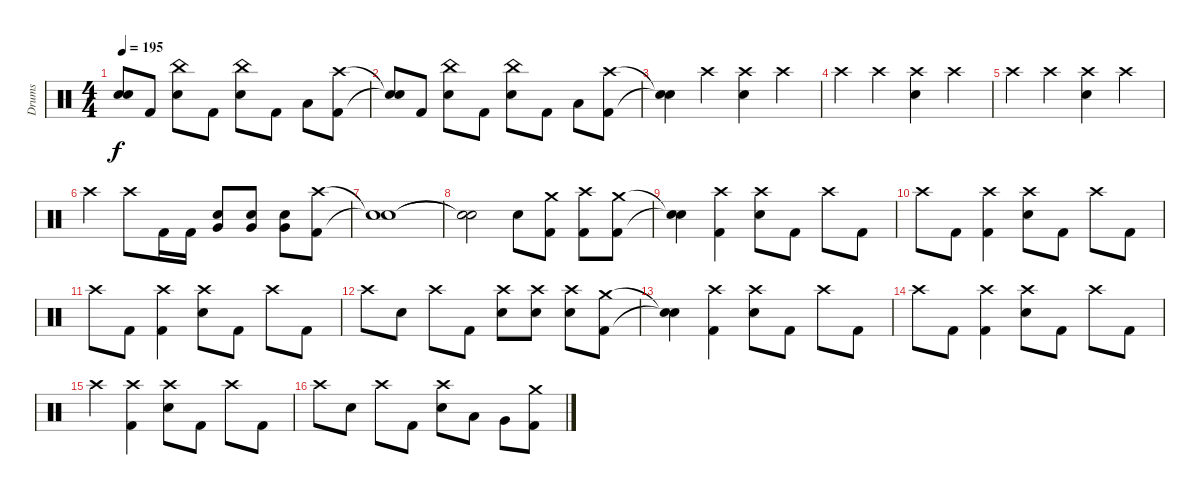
\track ("Drums" "Drums") {instrument percussion}
\staff {score}
\articulation defaults
\ts (4 4)
\tempo 195
\clef neutral
\ks c
("Snare (hit)"{t} "Snare (hit)"{t}).8{dy f} "Kick (hit) 2".8 ("China (hit)" "Electric Snare (hit)").8 "Kick (hit) 2".8 ("China (hit)" "Electric Snare (hit)").8 "Kick (hit) 2".8 "Low Tom (hit)".8 ("Crash high (hit)" "Kick (hit) 2").8 |
("Snare (hit)"{t} "Snare (hit)"{t}).8 "Kick (hit) 2".8 ("China (hit)" "Electric Snare (hit)").8 "Kick (hit) 2".8 ("China (hit)" "Electric Snare (hit)").8 "Kick (hit) 2".8 "Low Tom (hit)".8 ("Crash high (hit)" "Kick (hit) 2").8 |
("Snare (hit)"{t} "Snare (hit)"{t}).4 "Crash high (hit)".4 ("Crash high (hit)" "Electric Snare (hit)").4 "Crash high (hit)".4 |
"Crash high (hit)".4 "Crash high (hit)".4 ("Crash high (hit)" "Electric Snare (hit)").4 "Crash high (hit)".4 |
"Crash high (hit)".4 "Crash high (hit)".4 ("Crash high (hit)" "Electric Snare (hit)").4 "Crash high (hit)".4 |
"Crash high (hit)".4 "Crash high (hit)".8 "Kick (hit) 2".16 "Kick (hit) 2".16 ("Very Low Tom (hit)" "Electric Snare (hit)").8 ("Very Low Tom (hit)" "Electric Snare (hit)").8 ("Very Low Tom (hit)" "Electric Snare (hit)").8 ("Crash high (hit)" "Kick (hit) 2").8 |
("Snare (hit)"{t} "Snare (hit)"{t}).1 |
("Snare (hit)"{t} "Snare (hit)"{t}).2 "Electric Snare (hit)".8 ("Crash medium (hit)" "Kick (hit) 2").8 ("Crash high (hit)" "Kick (hit) 2").8 ("Crash medium (hit)" "Kick (hit) 2").8 |
("Snare (hit)"{t} "Snare (hit)"{t}).4 ("Crash high (hit)" "Kick (hit) 2").4 ("Crash high (hit)" "Electric Snare (hit)").8 "Kick (hit) 2".8 "Crash high (hit)".8 "Kick (hit) 2".8 |
"Crash high (hit)".8 "Kick (hit) 2".8 ("Crash high (hit)" "Kick (hit) 2").4 ("Crash high (hit)" "Electric Snare (hit)").8 "Kick (hit) 2".8 "Crash high (hit)".8 "Kick (hit) 2".8 |
"Crash high (hit)".8 "Kick (hit) 2".8 ("Crash high (hit)" "Kick (hit) 2").4 ("Crash high (hit)" "Electric Snare (hit)").8 "Kick (hit) 2".8 "Crash high (hit)".8 "Kick (hit) 2".8 |
"Crash high (hit)".8 "Electric Snare (hit)".8 "Crash high (hit)".8 "Kick (hit) 2".8 ("Crash high (hit)" "Electric Snare (hit)").8 ("Crash high (hit)" "Electric Snare (hit)").8 ("Crash high (hit)" "Electric Snare (hit)").8 ("Crash medium (hit)" "Kick (hit) 2").8 |
("Snare (hit)"{t} "Snare (hit)"{t}).4 ("Crash high (hit)" "Kick (hit) 2").4 ("Crash high (hit)" "Electric Snare (hit)").8 "Kick (hit) 2".8 "Crash high (hit)".8 "Kick (hit) 2".8 |
"Crash high (hit)".8 "Kick (hit) 2".8 ("Crash high (hit)" "Kick (hit) 2").4 ("Crash high (hit)" "Electric Snare (hit)").8 "Kick (hit) 2".8 "Crash high (hit)".8 "Kick (hit) 2".8 |
"Crash high (hit)".4 ("Crash high (hit)" "Kick (hit) 2").4 ("Crash high (hit)" "Electric Snare (hit)").8 "Kick (hit) 2".8 "Crash high (hit)".8 "Kick (hit) 2".8 |
"Crash high (hit)".8 "Electric Snare (hit)".8 "Crash high (hit)".8 "Kick (hit) 2".8 ("Crash high (hit)" "Electric Snare (hit)").8 "Low Tom (hit)".8 "Very Low Tom (hit)".8 ("Crash medium (hit)" "Kick (hit) 2").8
